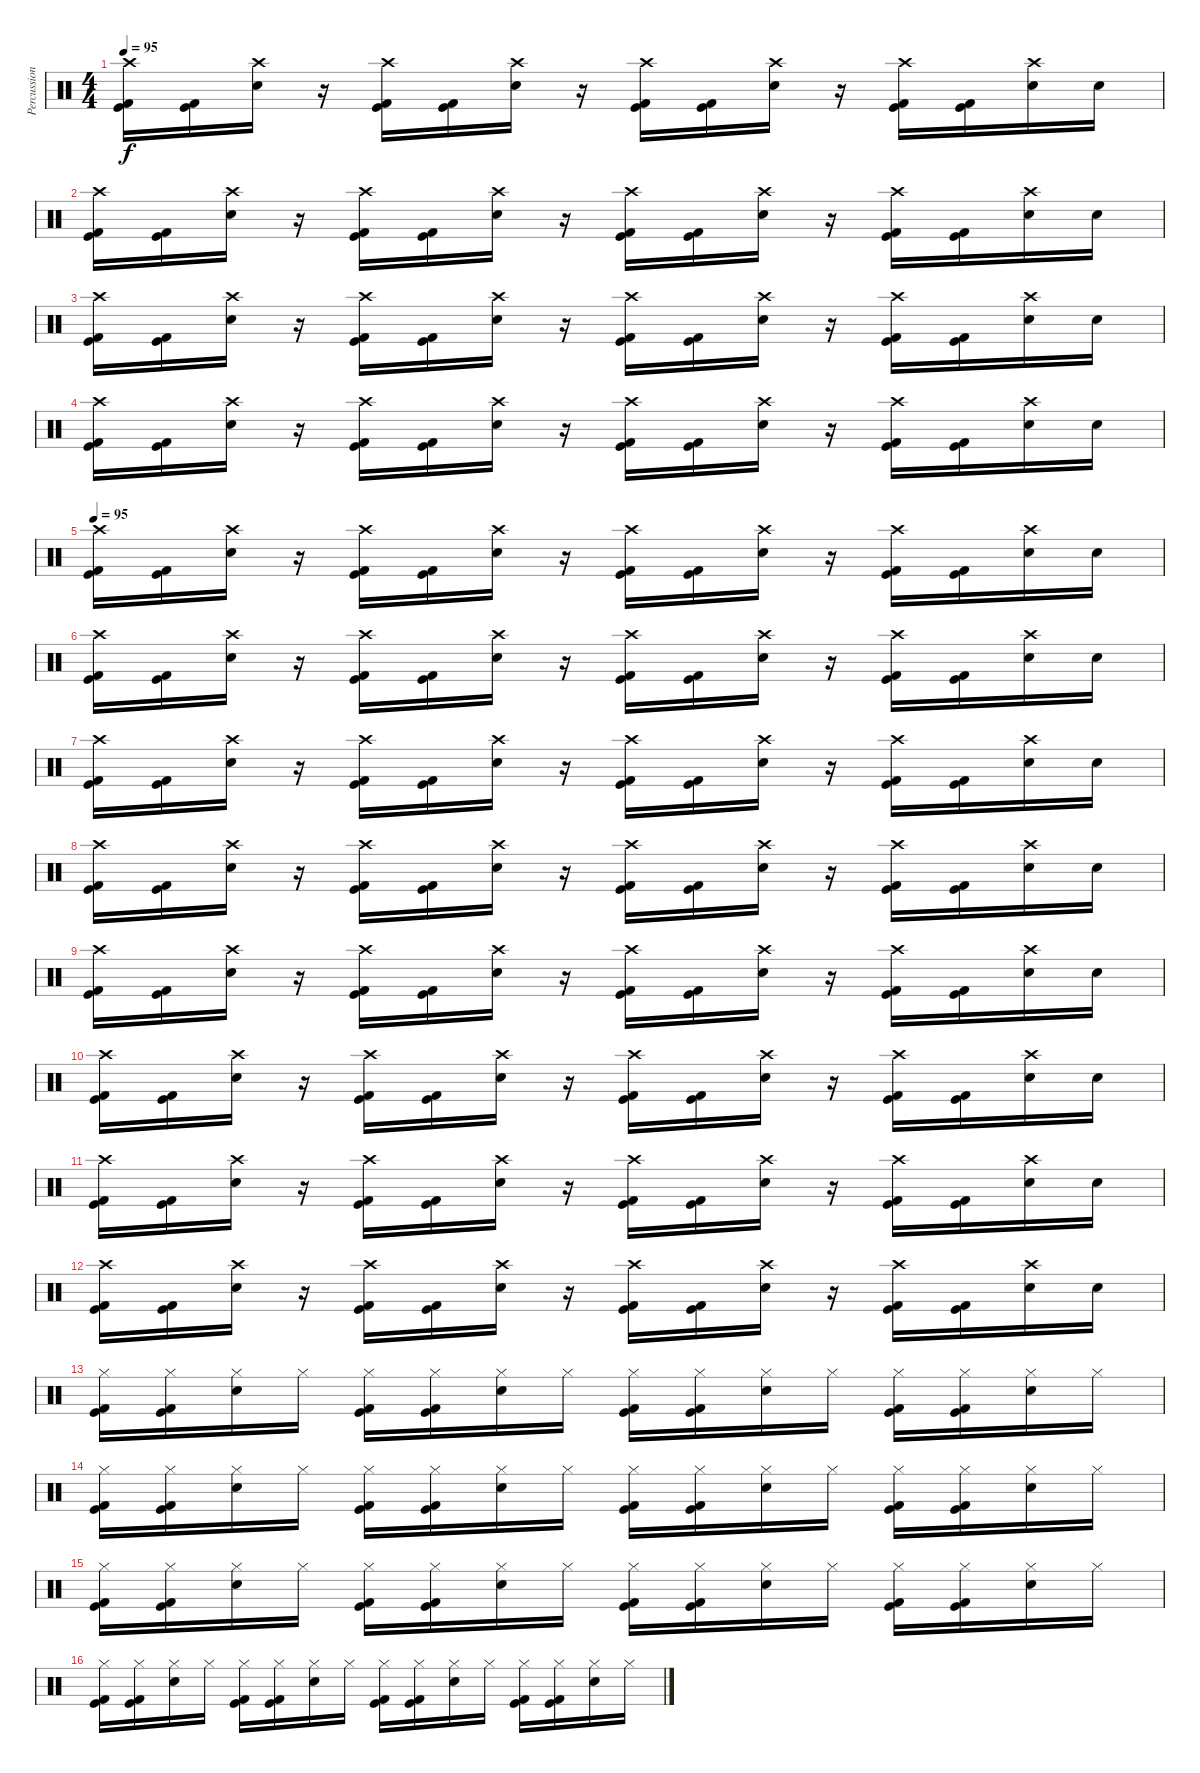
\track ("Percussion" "Percussion") {instrument percussion}
\staff {score}
\articulation defaults
\ts (4 4)
\tempo 95
\clef neutral
\ks c
("Crash high (hit)" "Kick (hit)" "Kick (hit) 2").16{dy f} ("Kick (hit)" "Kick (hit) 2").16 ("Crash high (hit)" "Electric Snare (hit)").16 r.16 ("Crash high (hit)" "Kick (hit)" "Kick (hit) 2").16 ("Kick (hit)" "Kick (hit) 2").16 ("Crash high (hit)" "Electric Snare (hit)").16 r.16 ("Crash high (hit)" "Kick (hit)" "Kick (hit) 2").16 ("Kick (hit)" "Kick (hit) 2").16 ("Crash high (hit)" "Electric Snare (hit)").16 r.16 ("Crash high (hit)" "Kick (hit)" "Kick (hit) 2").16 ("Kick (hit)" "Kick (hit) 2").16 ("Crash high (hit)" "Electric Snare (hit)").16 "Snare (hit)".16 |
("Crash high (hit)" "Kick (hit)" "Kick (hit) 2").16 ("Kick (hit)" "Kick (hit) 2").16 ("Crash high (hit)" "Electric Snare (hit)").16 r.16 ("Crash high (hit)" "Kick (hit)" "Kick (hit) 2").16 ("Kick (hit)" "Kick (hit) 2").16 ("Crash high (hit)" "Electric Snare (hit)").16 r.16 ("Crash high (hit)" "Kick (hit)" "Kick (hit) 2").16 ("Kick (hit)" "Kick (hit) 2").16 ("Crash high (hit)" "Electric Snare (hit)").16 r.16 ("Crash high (hit)" "Kick (hit)" "Kick (hit) 2").16 ("Kick (hit)" "Kick (hit) 2").16 ("Crash high (hit)" "Electric Snare (hit)").16 "Snare (hit)".16 |
("Crash high (hit)" "Kick (hit)" "Kick (hit) 2").16 ("Kick (hit)" "Kick (hit) 2").16 ("Crash high (hit)" "Electric Snare (hit)").16 r.16 ("Crash high (hit)" "Kick (hit)" "Kick (hit) 2").16 ("Kick (hit)" "Kick (hit) 2").16 ("Crash high (hit)" "Electric Snare (hit)").16 r.16 ("Crash high (hit)" "Kick (hit)" "Kick (hit) 2").16 ("Kick (hit)" "Kick (hit) 2").16 ("Crash high (hit)" "Electric Snare (hit)").16 r.16 ("Crash high (hit)" "Kick (hit)" "Kick (hit) 2").16 ("Kick (hit)" "Kick (hit) 2").16 ("Crash high (hit)" "Electric Snare (hit)").16 "Snare (hit)".16 |
("Crash high (hit)" "Kick (hit)" "Kick (hit) 2").16 ("Kick (hit)" "Kick (hit) 2").16 ("Crash high (hit)" "Electric Snare (hit)").16 r.16 ("Crash high (hit)" "Kick (hit)" "Kick (hit) 2").16 ("Kick (hit)" "Kick (hit) 2").16 ("Crash high (hit)" "Electric Snare (hit)").16 r.16 ("Crash high (hit)" "Kick (hit)" "Kick (hit) 2").16 ("Kick (hit)" "Kick (hit) 2").16 ("Crash high (hit)" "Electric Snare (hit)").16 r.16 ("Crash high (hit)" "Kick (hit)" "Kick (hit) 2").16 ("Kick (hit)" "Kick (hit) 2").16 ("Crash high (hit)" "Electric Snare (hit)").16 "Snare (hit)".16 |
\tempo 95
("Crash high (hit)" "Kick (hit)" "Kick (hit) 2").16 ("Kick (hit)" "Kick (hit) 2").16 ("Crash high (hit)" "Electric Snare (hit)").16 r.16 ("Crash high (hit)" "Kick (hit)" "Kick (hit) 2").16 ("Kick (hit)" "Kick (hit) 2").16 ("Crash high (hit)" "Electric Snare (hit)").16 r.16 ("Crash high (hit)" "Kick (hit)" "Kick (hit) 2").16 ("Kick (hit)" "Kick (hit) 2").16 ("Crash high (hit)" "Electric Snare (hit)").16 r.16 ("Crash high (hit)" "Kick (hit)" "Kick (hit) 2").16 ("Kick (hit)" "Kick (hit) 2").16 ("Crash high (hit)" "Electric Snare (hit)").16 "Snare (hit)".16 |
("Crash high (hit)" "Kick (hit)" "Kick (hit) 2").16 ("Kick (hit)" "Kick (hit) 2").16 ("Crash high (hit)" "Electric Snare (hit)").16 r.16 ("Crash high (hit)" "Kick (hit)" "Kick (hit) 2").16 ("Kick (hit)" "Kick (hit) 2").16 ("Crash high (hit)" "Electric Snare (hit)").16 r.16 ("Crash high (hit)" "Kick (hit)" "Kick (hit) 2").16 ("Kick (hit)" "Kick (hit) 2").16 ("Crash high (hit)" "Electric Snare (hit)").16 r.16 ("Crash high (hit)" "Kick (hit)" "Kick (hit) 2").16 ("Kick (hit)" "Kick (hit) 2").16 ("Crash high (hit)" "Electric Snare (hit)").16 "Snare (hit)".16 |
("Crash high (hit)" "Kick (hit)" "Kick (hit) 2").16 ("Kick (hit)" "Kick (hit) 2").16 ("Crash high (hit)" "Electric Snare (hit)").16 r.16 ("Crash high (hit)" "Kick (hit)" "Kick (hit) 2").16 ("Kick (hit)" "Kick (hit) 2").16 ("Crash high (hit)" "Electric Snare (hit)").16 r.16 ("Crash high (hit)" "Kick (hit)" "Kick (hit) 2").16 ("Kick (hit)" "Kick (hit) 2").16 ("Crash high (hit)" "Electric Snare (hit)").16 r.16 ("Crash high (hit)" "Kick (hit)" "Kick (hit) 2").16 ("Kick (hit)" "Kick (hit) 2").16 ("Crash high (hit)" "Electric Snare (hit)").16 "Snare (hit)".16 |
("Crash high (hit)" "Kick (hit)" "Kick (hit) 2").16 ("Kick (hit)" "Kick (hit) 2").16 ("Crash high (hit)" "Electric Snare (hit)").16 r.16 ("Crash high (hit)" "Kick (hit)" "Kick (hit) 2").16 ("Kick (hit)" "Kick (hit) 2").16 ("Crash high (hit)" "Electric Snare (hit)").16 r.16 ("Crash high (hit)" "Kick (hit)" "Kick (hit) 2").16 ("Kick (hit)" "Kick (hit) 2").16 ("Crash high (hit)" "Electric Snare (hit)").16 r.16 ("Crash high (hit)" "Kick (hit)" "Kick (hit) 2").16 ("Kick (hit)" "Kick (hit) 2").16 ("Crash high (hit)" "Electric Snare (hit)").16 "Snare (hit)".16 |
("Crash high (hit)" "Kick (hit)" "Kick (hit) 2").16 ("Kick (hit)" "Kick (hit) 2").16 ("Crash high (hit)" "Electric Snare (hit)").16 r.16 ("Crash high (hit)" "Kick (hit)" "Kick (hit) 2").16 ("Kick (hit)" "Kick (hit) 2").16 ("Crash high (hit)" "Electric Snare (hit)").16 r.16 ("Crash high (hit)" "Kick (hit)" "Kick (hit) 2").16 ("Kick (hit)" "Kick (hit) 2").16 ("Crash high (hit)" "Electric Snare (hit)").16 r.16 ("Crash high (hit)" "Kick (hit)" "Kick (hit) 2").16 ("Kick (hit)" "Kick (hit) 2").16 ("Crash high (hit)" "Electric Snare (hit)").16 "Snare (hit)".16 |
("Crash high (hit)" "Kick (hit)" "Kick (hit) 2").16 ("Kick (hit)" "Kick (hit) 2").16 ("Crash high (hit)" "Electric Snare (hit)").16 r.16 ("Crash high (hit)" "Kick (hit)" "Kick (hit) 2").16 ("Kick (hit)" "Kick (hit) 2").16 ("Crash high (hit)" "Electric Snare (hit)").16 r.16 ("Crash high (hit)" "Kick (hit)" "Kick (hit) 2").16 ("Kick (hit)" "Kick (hit) 2").16 ("Crash high (hit)" "Electric Snare (hit)").16 r.16 ("Crash high (hit)" "Kick (hit)" "Kick (hit) 2").16 ("Kick (hit)" "Kick (hit) 2").16 ("Crash high (hit)" "Electric Snare (hit)").16 "Snare (hit)".16 |
("Crash high (hit)" "Kick (hit)" "Kick (hit) 2").16 ("Kick (hit)" "Kick (hit) 2").16 ("Crash high (hit)" "Electric Snare (hit)").16 r.16 ("Crash high (hit)" "Kick (hit)" "Kick (hit) 2").16 ("Kick (hit)" "Kick (hit) 2").16 ("Crash high (hit)" "Electric Snare (hit)").16 r.16 ("Crash high (hit)" "Kick (hit)" "Kick (hit) 2").16 ("Kick (hit)" "Kick (hit) 2").16 ("Crash high (hit)" "Electric Snare (hit)").16 r.16 ("Crash high (hit)" "Kick (hit)" "Kick (hit) 2").16 ("Kick (hit)" "Kick (hit) 2").16 ("Crash high (hit)" "Electric Snare (hit)").16 "Snare (hit)".16 |
("Crash high (hit)" "Kick (hit)" "Kick (hit) 2").16 ("Kick (hit)" "Kick (hit) 2").16 ("Crash high (hit)" "Electric Snare (hit)").16 r.16 ("Crash high (hit)" "Kick (hit)" "Kick (hit) 2").16 ("Kick (hit)" "Kick (hit) 2").16 ("Crash high (hit)" "Electric Snare (hit)").16 r.16 ("Crash high (hit)" "Kick (hit)" "Kick (hit) 2").16 ("Kick (hit)" "Kick (hit) 2").16 ("Crash high (hit)" "Electric Snare (hit)").16 r.16 ("Crash high (hit)" "Kick (hit)" "Kick (hit) 2").16 ("Kick (hit)" "Kick (hit) 2").16 ("Crash high (hit)" "Electric Snare (hit)").16 "Snare (hit)".16 |
("Hi-Hat (closed)" "Kick (hit)" "Kick (hit) 2").16 ("Hi-Hat (closed)" "Kick (hit)" "Kick (hit) 2").16 ("Hi-Hat (closed)" "Electric Snare (hit)").16 "Hi-Hat (closed)".16 ("Hi-Hat (closed)" "Kick (hit)" "Kick (hit) 2").16 ("Hi-Hat (closed)" "Kick (hit)" "Kick (hit) 2").16 ("Hi-Hat (closed)" "Electric Snare (hit)").16 "Hi-Hat (closed)".16 ("Hi-Hat (closed)" "Kick (hit)" "Kick (hit) 2").16 ("Hi-Hat (closed)" "Kick (hit)" "Kick (hit) 2").16 ("Hi-Hat (closed)" "Electric Snare (hit)").16 "Hi-Hat (closed)".16 ("Hi-Hat (closed)" "Kick (hit)" "Kick (hit) 2").16 ("Hi-Hat (closed)" "Kick (hit)" "Kick (hit) 2").16 ("Hi-Hat (closed)" "Electric Snare (hit)").16 "Hi-Hat (closed)".16 |
("Hi-Hat (closed)" "Kick (hit)" "Kick (hit) 2").16 ("Hi-Hat (closed)" "Kick (hit)" "Kick (hit) 2").16 ("Hi-Hat (closed)" "Electric Snare (hit)").16 "Hi-Hat (closed)".16 ("Hi-Hat (closed)" "Kick (hit)" "Kick (hit) 2").16 ("Hi-Hat (closed)" "Kick (hit)" "Kick (hit) 2").16 ("Hi-Hat (closed)" "Electric Snare (hit)").16 "Hi-Hat (closed)".16 ("Hi-Hat (closed)" "Kick (hit)" "Kick (hit) 2").16 ("Hi-Hat (closed)" "Kick (hit)" "Kick (hit) 2").16 ("Hi-Hat (closed)" "Electric Snare (hit)").16 "Hi-Hat (closed)".16 ("Hi-Hat (closed)" "Kick (hit)" "Kick (hit) 2").16 ("Hi-Hat (closed)" "Kick (hit)" "Kick (hit) 2").16 ("Hi-Hat (closed)" "Electric Snare (hit)").16 "Hi-Hat (closed)".16 |
("Hi-Hat (closed)" "Kick (hit)" "Kick (hit) 2").16 ("Hi-Hat (closed)" "Kick (hit)" "Kick (hit) 2").16 ("Hi-Hat (closed)" "Electric Snare (hit)").16 "Hi-Hat (closed)".16 ("Hi-Hat (closed)" "Kick (hit)" "Kick (hit) 2").16 ("Hi-Hat (closed)" "Kick (hit)" "Kick (hit) 2").16 ("Hi-Hat (closed)" "Electric Snare (hit)").16 "Hi-Hat (closed)".16 ("Hi-Hat (closed)" "Kick (hit)" "Kick (hit) 2").16 ("Hi-Hat (closed)" "Kick (hit)" "Kick (hit) 2").16 ("Hi-Hat (closed)" "Electric Snare (hit)").16 "Hi-Hat (closed)".16 ("Hi-Hat (closed)" "Kick (hit)" "Kick (hit) 2").16 ("Hi-Hat (closed)" "Kick (hit)" "Kick (hit) 2").16 ("Hi-Hat (closed)" "Electric Snare (hit)").16 "Hi-Hat (closed)".16 |
("Hi-Hat (closed)" "Kick (hit)" "Kick (hit) 2").16 ("Hi-Hat (closed)" "Kick (hit)" "Kick (hit) 2").16 ("Hi-Hat (closed)" "Electric Snare (hit)").16 "Hi-Hat (closed)".16 ("Hi-Hat (closed)" "Kick (hit)" "Kick (hit) 2").16 ("Hi-Hat (closed)" "Kick (hit)" "Kick (hit) 2").16 ("Hi-Hat (closed)" "Electric Snare (hit)").16 "Hi-Hat (closed)".16 ("Hi-Hat (closed)" "Kick (hit)" "Kick (hit) 2").16 ("Hi-Hat (closed)" "Kick (hit)" "Kick (hit) 2").16 ("Hi-Hat (closed)" "Electric Snare (hit)").16 "Hi-Hat (closed)".16 ("Hi-Hat (closed)" "Kick (hit)" "Kick (hit) 2").16 ("Hi-Hat (closed)" "Kick (hit)" "Kick (hit) 2").16 ("Hi-Hat (closed)" "Electric Snare (hit)").16 "Hi-Hat (closed)".16
